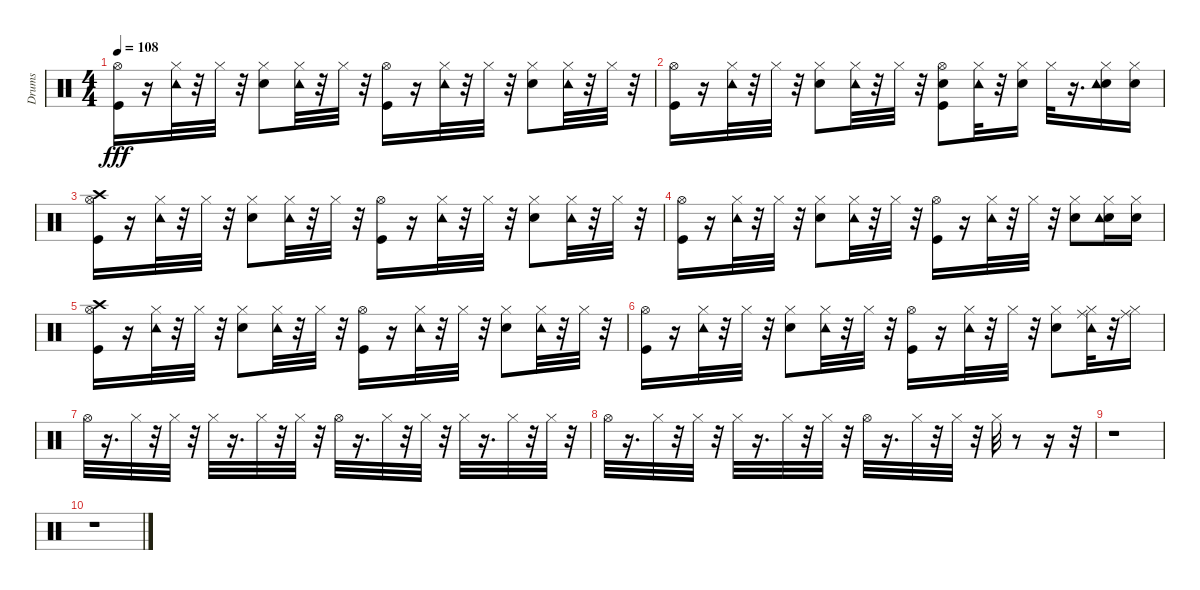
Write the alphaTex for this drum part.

\track ("Drums               " "Drums     ") {instrument percussion}
\staff {score}
\articulation defaults
\ts (4 4)
\tempo 108
\clef neutral
\ks c
("Kick (hit)" "Hi-Hat (open)").16{dy fff} r.16 ("Hi-Hat (closed)" "Tambourine (hit)").32 r.32 "Hi-Hat (closed)".32 r.32 ("Snare (hit) 2" "Hi-Hat (closed)").8 ("Hi-Hat (closed)" "Tambourine (hit)").32 r.32 "Hi-Hat (closed)".32 r.32 ("Kick (hit)" "Hi-Hat (open)").16 r.16 ("Hi-Hat (closed)" "Tambourine (hit)").32 r.32 "Hi-Hat (closed)".32 r.32 ("Snare (hit) 2" "Hi-Hat (closed)").8 ("Hi-Hat (closed)" "Tambourine (hit)").32 r.32 "Hi-Hat (closed)".32 r.32 |
("Kick (hit)" "Hi-Hat (open)").16 r.16 ("Hi-Hat (closed)" "Tambourine (hit)").32 r.32 "Hi-Hat (closed)".32 r.32 ("Snare (hit) 2" "Hi-Hat (closed)").8 ("Hi-Hat (closed)" "Tambourine (hit)").32 r.32 "Hi-Hat (closed)".32 r.32 ("Kick (hit)" "Snare (hit) 2" "Hi-Hat (open)").8 ("Hi-Hat (closed)" "Tambourine (hit)").32 r.32 ("Snare (hit) 2" "Hi-Hat (closed)").16 "Hi-Hat (closed)".32 r.16{d} ("Snare (hit) 2" "Hi-Hat (closed)" "Tambourine (hit)").16 ("Snare (hit) 2" "Hi-Hat (closed)").16 |
("Kick (hit)" "Hi-Hat (open)" "Crash high (hit)").16 r.16 ("Hi-Hat (closed)" "Tambourine (hit)").32 r.32 "Hi-Hat (closed)".32 r.32 ("Snare (hit) 2" "Hi-Hat (closed)").8 ("Hi-Hat (closed)" "Tambourine (hit)").32 r.32 "Hi-Hat (closed)".32 r.32 ("Kick (hit)" "Hi-Hat (open)").16 r.16 ("Hi-Hat (closed)" "Tambourine (hit)").32 r.32 "Hi-Hat (closed)".32 r.32 ("Snare (hit) 2" "Hi-Hat (closed)").8 ("Hi-Hat (closed)" "Tambourine (hit)").32 r.32 "Hi-Hat (closed)".32 r.32 |
("Kick (hit)" "Hi-Hat (open)").16 r.16 ("Hi-Hat (closed)" "Tambourine (hit)").32 r.32 "Hi-Hat (closed)".32 r.32 ("Snare (hit) 2" "Hi-Hat (closed)").8 ("Hi-Hat (closed)" "Tambourine (hit)").32 r.32 "Hi-Hat (closed)".32 r.32 ("Kick (hit)" "Hi-Hat (open)").16 r.16 ("Hi-Hat (closed)" "Tambourine (hit)").32 r.32 "Hi-Hat (closed)".32 r.32 ("Snare (hit) 2" "Hi-Hat (closed)").8 ("Snare (hit) 2" "Hi-Hat (closed)" "Tambourine (hit)").16 ("Snare (hit) 2" "Hi-Hat (closed)").16 |
("Kick (hit)" "Hi-Hat (open)" "Crash high (hit)").16 r.16 ("Hi-Hat (closed)" "Tambourine (hit)").32 r.32 "Hi-Hat (closed)".32 r.32 ("Snare (hit) 2" "Hi-Hat (closed)").8 ("Hi-Hat (closed)" "Tambourine (hit)").32 r.32 "Hi-Hat (closed)".32 r.32 ("Kick (hit)" "Hi-Hat (open)").16 r.16 ("Hi-Hat (closed)" "Tambourine (hit)").32 r.32 "Hi-Hat (closed)".32 r.32 ("Snare (hit) 2" "Hi-Hat (closed)").8 ("Hi-Hat (closed)" "Tambourine (hit)").32 r.32 "Hi-Hat (closed)".32 r.32 |
("Kick (hit)" "Hi-Hat (open)").16 r.16 ("Hi-Hat (closed)" "Tambourine (hit)").32 r.32 "Hi-Hat (closed)".32 r.32 ("Snare (hit) 2" "Hi-Hat (closed)").8 ("Hi-Hat (closed)" "Tambourine (hit)").32 r.32 "Hi-Hat (closed)".32 r.32 ("Kick (hit)" "Hi-Hat (open)").16 r.16 ("Hi-Hat (closed)" "Tambourine (hit)").32 r.32 "Hi-Hat (closed)".32 r.32 ("Snare (hit) 2" "Hi-Hat (closed)").8 ("Hi-Hat (closed)" "Ride (middle)" "Tambourine (hit)").32 r.32 ("Hi-Hat (closed)" "Ride (middle)").16 |
"Hi-Hat (open)".32 r.16{d} "Hi-Hat (closed)".32 r.32 "Hi-Hat (closed)".32 r.32 "Hi-Hat (closed)".32 r.16{d} "Hi-Hat (closed)".32 r.32 "Hi-Hat (closed)".32 r.32 "Hi-Hat (open)".32 r.16{d} "Hi-Hat (closed)".32 r.32 "Hi-Hat (closed)".32 r.32 "Hi-Hat (closed)".32 r.16{d} "Hi-Hat (closed)".32 r.32 "Hi-Hat (closed)".32 r.32 |
"Hi-Hat (open)".32 r.16{d} "Hi-Hat (closed)".32 r.32 "Hi-Hat (closed)".32 r.32 "Hi-Hat (closed)".32 r.16{d} "Hi-Hat (closed)".32 r.32 "Hi-Hat (closed)".32 r.32 "Hi-Hat (open)".32 r.16{d} "Hi-Hat (closed)".32 r.32 "Hi-Hat (closed)".32 r.32 "Hi-Hat (closed)".32 r.8 r.16 r.32 |
r.1 |
r.1
